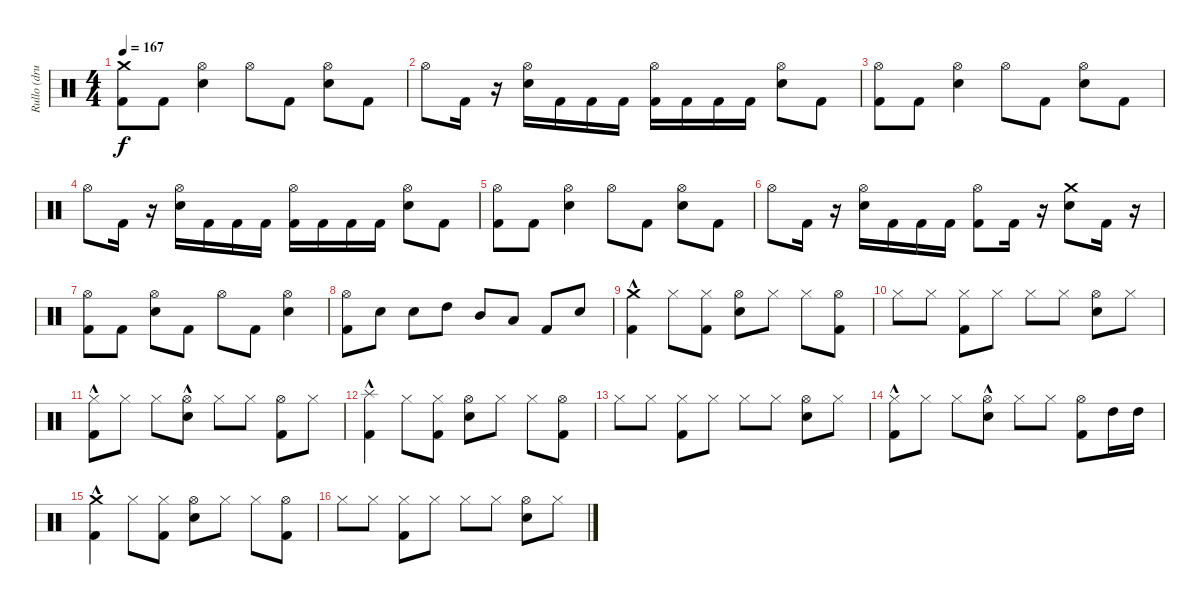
\track ("Rullo (drums)" "Rullo (dru") {instrument percussion}
\staff {score}
\articulation defaults
\ts (4 4)
\tempo 167
\clef neutral
\ks c
("Crash medium (hit)" "Kick (hit) 2").8{dy f} "Kick (hit) 2".8 ("Hi-Hat (open)" "Electric Snare (hit)").4 "Hi-Hat (open)".8 "Kick (hit) 2".8 ("Hi-Hat (open)" "Electric Snare (hit)").8 "Kick (hit) 2".8 |
"Hi-Hat (open)".8 "Kick (hit) 2".16 r.16 ("Hi-Hat (open)" "Electric Snare (hit)").16 "Kick (hit) 2".16 "Kick (hit) 2".16 "Kick (hit) 2".16 ("Hi-Hat (open)" "Kick (hit) 2").16 "Kick (hit) 2".16 "Kick (hit) 2".16 "Kick (hit) 2".16 ("Hi-Hat (open)" "Electric Snare (hit)").8 "Kick (hit) 2".8 |
("Hi-Hat (open)" "Kick (hit) 2").8 "Kick (hit) 2".8 ("Hi-Hat (open)" "Electric Snare (hit)").4 "Hi-Hat (open)".8 "Kick (hit) 2".8 ("Hi-Hat (open)" "Electric Snare (hit)").8 "Kick (hit) 2".8 |
"Hi-Hat (open)".8 "Kick (hit) 2".16 r.16 ("Hi-Hat (open)" "Electric Snare (hit)").16 "Kick (hit) 2".16 "Kick (hit) 2".16 "Kick (hit) 2".16 ("Hi-Hat (open)" "Kick (hit) 2").16 "Kick (hit) 2".16 "Kick (hit) 2".16 "Kick (hit) 2".16 ("Hi-Hat (open)" "Electric Snare (hit)").8 "Kick (hit) 2".8 |
("Hi-Hat (open)" "Kick (hit) 2").8 "Kick (hit) 2".8 ("Hi-Hat (open)" "Electric Snare (hit)").4 "Hi-Hat (open)".8 "Kick (hit) 2".8 ("Hi-Hat (open)" "Electric Snare (hit)").8 "Kick (hit) 2".8 |
"Hi-Hat (open)".8 "Kick (hit) 2".16 r.16 ("Hi-Hat (open)" "Electric Snare (hit)").16 "Kick (hit) 2".16 "Kick (hit) 2".16 "Kick (hit) 2".16 ("Hi-Hat (open)" "Kick (hit) 2").8 "Kick (hit) 2".16 r.16 ("Crash medium (hit)" "Electric Snare (hit)").8 "Kick (hit) 2".16 r.16 |
("Hi-Hat (open)" "Kick (hit) 2").8 "Kick (hit) 2".8 ("Hi-Hat (open)" "Electric Snare (hit)").8 "Kick (hit) 2".8 "Hi-Hat (open)".8 "Kick (hit) 2".8 ("Hi-Hat (open)" "Electric Snare (hit)").4 |
("Kick (hit) 2" "Hi-Hat (open)").8 "Electric Snare (hit)".8 "Electric Snare (hit)".8 "High Tom (hit)".8 "Mid Tom (hit)".8 "Low Tom (hit)".8 "Kick (hit) 2".8 "Electric Snare (hit)".8 |
("Crash medium (hit)" "Kick (hit) 2"{hac}).4 "Hi-Hat (closed)".8 ("Hi-Hat (closed)" "Kick (hit) 2").8 ("Hi-Hat (open)" "Electric Snare (hit)").8 "Hi-Hat (closed)".8 "Hi-Hat (closed)".8 ("Hi-Hat (open)" "Kick (hit) 2").8 |
"Hi-Hat (closed)".8 "Hi-Hat (closed)".8 ("Hi-Hat (closed)" "Kick (hit) 2").8 "Hi-Hat (closed)".8 "Hi-Hat (closed)".8 "Hi-Hat (closed)".8 ("Hi-Hat (open)" "Electric Snare (hit)").8 "Hi-Hat (closed)".8 |
("Hi-Hat (closed)" "Kick (hit) 2"{hac}).8 "Hi-Hat (closed)".8 "Hi-Hat (closed)".8 ("Hi-Hat (open)" "Electric Snare (hit)"{hac}).8 "Hi-Hat (closed)".8 "Hi-Hat (closed)".8 ("Hi-Hat (open)" "Kick (hit) 2").8 "Hi-Hat (closed)".8 |
("Splash (hit)" "Kick (hit) 2"{hac}).4 "Hi-Hat (closed)".8 ("Hi-Hat (closed)" "Kick (hit) 2").8 ("Hi-Hat (open)" "Electric Snare (hit)").8 "Hi-Hat (closed)".8 "Hi-Hat (closed)".8 ("Hi-Hat (open)" "Kick (hit) 2").8 |
"Hi-Hat (closed)".8 "Hi-Hat (closed)".8 ("Hi-Hat (closed)" "Kick (hit) 2").8 "Hi-Hat (closed)".8 "Hi-Hat (closed)".8 "Hi-Hat (closed)".8 ("Hi-Hat (open)" "Electric Snare (hit)").8 "Hi-Hat (closed)".8 |
("Hi-Hat (closed)" "Kick (hit) 2"{hac}).8 "Hi-Hat (closed)".8 "Hi-Hat (closed)".8 ("Hi-Hat (open)" "Electric Snare (hit)"{hac}).8 "Hi-Hat (closed)".8 "Hi-Hat (closed)".8 ("Hi-Hat (open)" "Kick (hit) 2").8 "High Tom (hit)".16 "High Tom (hit)".16 |
("Crash medium (hit)" "Kick (hit) 2"{hac}).4 "Hi-Hat (closed)".8 ("Hi-Hat (closed)" "Kick (hit) 2").8 ("Hi-Hat (open)" "Electric Snare (hit)").8 "Hi-Hat (closed)".8 "Hi-Hat (closed)".8 ("Hi-Hat (open)" "Kick (hit) 2").8 |
"Hi-Hat (closed)".8 "Hi-Hat (closed)".8 ("Hi-Hat (closed)" "Kick (hit) 2").8 "Hi-Hat (closed)".8 "Hi-Hat (closed)".8 "Hi-Hat (closed)".8 ("Hi-Hat (open)" "Electric Snare (hit)").8 "Hi-Hat (closed)".8
